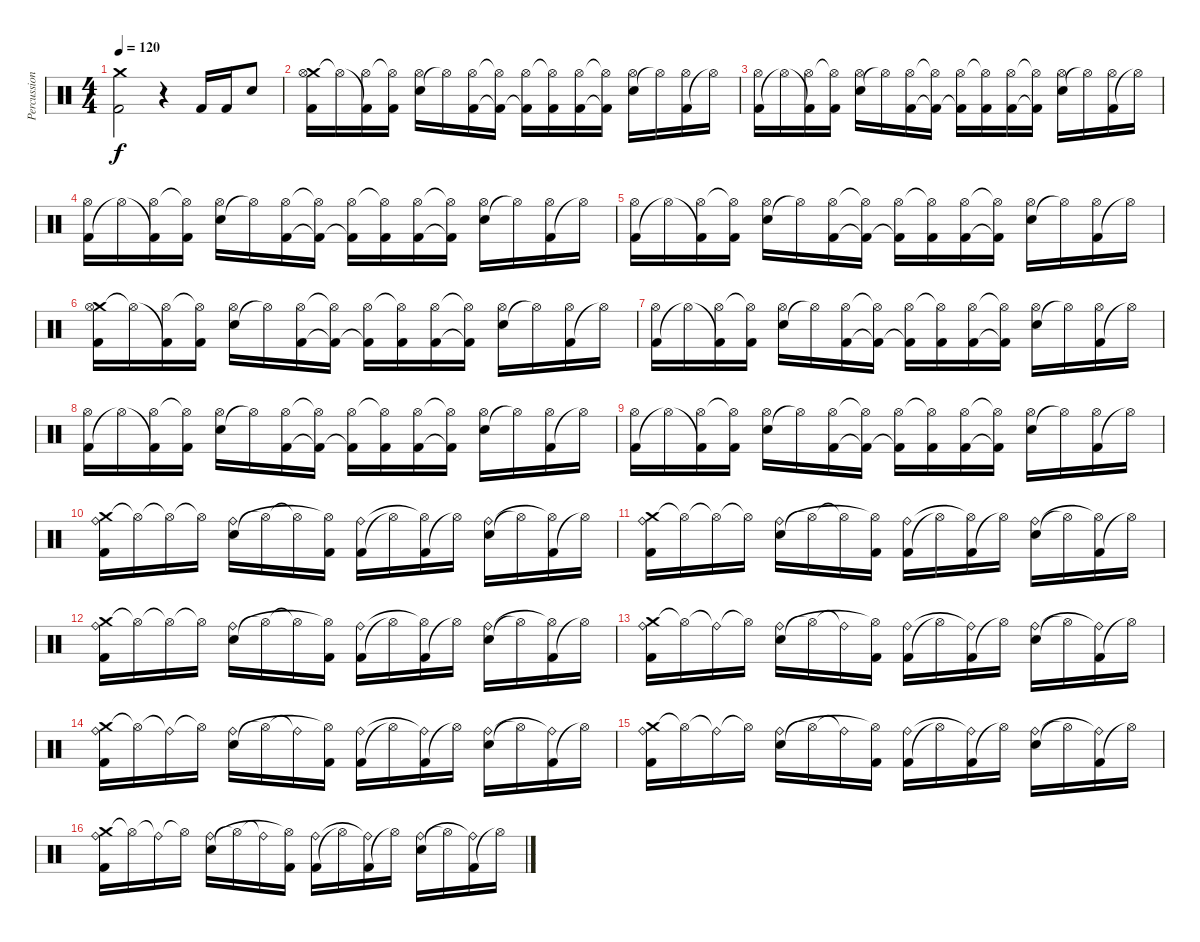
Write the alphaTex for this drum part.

\track ("Percussions" "Percussion") {instrument percussion}
\staff {score}
\articulation defaults
\ts (4 4)
\tempo 120
\clef neutral
\ks c
("Crash medium (hit)" "Kick (hit) 2").2{dy f} r.4 "Kick (hit) 2".16 "Kick (hit) 2".16 "Electric Snare (hit)".8 |
("Crash medium (hit)" "Kick (hit) 2" "Hi-Hat (open)").16 "Hi-Hat (open)"{t}.16 ("Kick (hit) 2"{t} "Hi-Hat (open)").16 ("Kick (hit) 2" "Hi-Hat (open)"{t}).16 ("Electric Snare (hit)" "Hi-Hat (open)").16 "Hi-Hat (open)"{t}.16 ("Kick (hit) 2" "Hi-Hat (open)").16 ("Kick (hit) 2"{t} "Hi-Hat (open)"{t}).16 ("Kick (hit) 2"{t} "Hi-Hat (open)").16 ("Kick (hit) 2" "Hi-Hat (open)"{t}).16 ("Kick (hit) 2" "Hi-Hat (open)").16 ("Kick (hit) 2"{t} "Hi-Hat (open)"{t}).16 ("Electric Snare (hit)" "Hi-Hat (open)").16 "Hi-Hat (open)"{t}.16 ("Kick (hit) 2" "Hi-Hat (open)").16 "Hi-Hat (open)"{t}.16 |
("Kick (hit) 2" "Hi-Hat (open)").16 "Hi-Hat (open)"{t}.16 ("Kick (hit) 2"{t} "Hi-Hat (open)").16 ("Kick (hit) 2" "Hi-Hat (open)"{t}).16 ("Electric Snare (hit)" "Hi-Hat (open)").16 "Hi-Hat (open)"{t}.16 ("Kick (hit) 2" "Hi-Hat (open)").16 ("Kick (hit) 2"{t} "Hi-Hat (open)"{t}).16 ("Kick (hit) 2"{t} "Hi-Hat (open)").16 ("Kick (hit) 2" "Hi-Hat (open)"{t}).16 ("Kick (hit) 2" "Hi-Hat (open)").16 ("Kick (hit) 2"{t} "Hi-Hat (open)"{t}).16 ("Electric Snare (hit)" "Hi-Hat (open)").16 "Hi-Hat (open)"{t}.16 ("Kick (hit) 2" "Hi-Hat (open)").16 "Hi-Hat (open)"{t}.16 |
("Kick (hit) 2" "Hi-Hat (open)").16 "Hi-Hat (open)"{t}.16 ("Kick (hit) 2"{t} "Hi-Hat (open)").16 ("Kick (hit) 2" "Hi-Hat (open)"{t}).16 ("Electric Snare (hit)" "Hi-Hat (open)").16 "Hi-Hat (open)"{t}.16 ("Kick (hit) 2" "Hi-Hat (open)").16 ("Kick (hit) 2"{t} "Hi-Hat (open)"{t}).16 ("Kick (hit) 2"{t} "Hi-Hat (open)").16 ("Kick (hit) 2" "Hi-Hat (open)"{t}).16 ("Kick (hit) 2" "Hi-Hat (open)").16 ("Kick (hit) 2"{t} "Hi-Hat (open)"{t}).16 ("Electric Snare (hit)" "Hi-Hat (open)").16 "Hi-Hat (open)"{t}.16 ("Kick (hit) 2" "Hi-Hat (open)").16 "Hi-Hat (open)"{t}.16 |
("Kick (hit) 2" "Hi-Hat (open)").16 "Hi-Hat (open)"{t}.16 ("Kick (hit) 2"{t} "Hi-Hat (open)").16 ("Kick (hit) 2" "Hi-Hat (open)"{t}).16 ("Electric Snare (hit)" "Hi-Hat (open)").16 "Hi-Hat (open)"{t}.16 ("Kick (hit) 2" "Hi-Hat (open)").16 ("Kick (hit) 2"{t} "Hi-Hat (open)"{t}).16 ("Kick (hit) 2"{t} "Hi-Hat (open)").16 ("Kick (hit) 2" "Hi-Hat (open)"{t}).16 ("Kick (hit) 2" "Hi-Hat (open)").16 ("Kick (hit) 2"{t} "Hi-Hat (open)"{t}).16 ("Electric Snare (hit)" "Hi-Hat (open)").16 "Hi-Hat (open)"{t}.16 ("Kick (hit) 2" "Hi-Hat (open)").16 "Hi-Hat (open)"{t}.16 |
("Crash medium (hit)" "Kick (hit) 2" "Hi-Hat (open)").16 "Hi-Hat (open)"{t}.16 ("Kick (hit) 2"{t} "Hi-Hat (open)").16 ("Kick (hit) 2" "Hi-Hat (open)"{t}).16 ("Electric Snare (hit)" "Hi-Hat (open)").16 "Hi-Hat (open)"{t}.16 ("Kick (hit) 2" "Hi-Hat (open)").16 ("Kick (hit) 2"{t} "Hi-Hat (open)"{t}).16 ("Kick (hit) 2"{t} "Hi-Hat (open)").16 ("Kick (hit) 2" "Hi-Hat (open)"{t}).16 ("Kick (hit) 2" "Hi-Hat (open)").16 ("Kick (hit) 2"{t} "Hi-Hat (open)"{t}).16 ("Electric Snare (hit)" "Hi-Hat (open)").16 "Hi-Hat (open)"{t}.16 ("Kick (hit) 2" "Hi-Hat (open)").16 "Hi-Hat (open)"{t}.16 |
("Kick (hit) 2" "Hi-Hat (open)").16 "Hi-Hat (open)"{t}.16 ("Kick (hit) 2"{t} "Hi-Hat (open)").16 ("Kick (hit) 2" "Hi-Hat (open)"{t}).16 ("Electric Snare (hit)" "Hi-Hat (open)").16 "Hi-Hat (open)"{t}.16 ("Kick (hit) 2" "Hi-Hat (open)").16 ("Kick (hit) 2"{t} "Hi-Hat (open)"{t}).16 ("Kick (hit) 2"{t} "Hi-Hat (open)").16 ("Kick (hit) 2" "Hi-Hat (open)"{t}).16 ("Kick (hit) 2" "Hi-Hat (open)").16 ("Kick (hit) 2"{t} "Hi-Hat (open)"{t}).16 ("Electric Snare (hit)" "Hi-Hat (open)").16 "Hi-Hat (open)"{t}.16 ("Kick (hit) 2" "Hi-Hat (open)").16 "Hi-Hat (open)"{t}.16 |
("Kick (hit) 2" "Hi-Hat (open)").16 "Hi-Hat (open)"{t}.16 ("Kick (hit) 2"{t} "Hi-Hat (open)").16 ("Kick (hit) 2" "Hi-Hat (open)"{t}).16 ("Electric Snare (hit)" "Hi-Hat (open)").16 "Hi-Hat (open)"{t}.16 ("Kick (hit) 2" "Hi-Hat (open)").16 ("Kick (hit) 2"{t} "Hi-Hat (open)"{t}).16 ("Kick (hit) 2"{t} "Hi-Hat (open)").16 ("Kick (hit) 2" "Hi-Hat (open)"{t}).16 ("Kick (hit) 2" "Hi-Hat (open)").16 ("Kick (hit) 2"{t} "Hi-Hat (open)"{t}).16 ("Electric Snare (hit)" "Hi-Hat (open)").16 "Hi-Hat (open)"{t}.16 ("Kick (hit) 2" "Hi-Hat (open)").16 "Hi-Hat (open)"{t}.16 |
("Kick (hit) 2" "Hi-Hat (open)").16 "Hi-Hat (open)"{t}.16 ("Kick (hit) 2"{t} "Hi-Hat (open)").16 ("Kick (hit) 2" "Hi-Hat (open)"{t}).16 ("Electric Snare (hit)" "Hi-Hat (open)").16 "Hi-Hat (open)"{t}.16 ("Kick (hit) 2" "Hi-Hat (open)").16 ("Kick (hit) 2"{t} "Hi-Hat (open)"{t}).16 ("Kick (hit) 2"{t} "Hi-Hat (open)").16 ("Kick (hit) 2" "Hi-Hat (open)"{t}).16 ("Kick (hit) 2" "Hi-Hat (open)").16 ("Kick (hit) 2"{t} "Hi-Hat (open)"{t}).16 ("Electric Snare (hit)" "Hi-Hat (open)").16 "Hi-Hat (open)"{t}.16 ("Kick (hit) 2" "Hi-Hat (open)").16 "Hi-Hat (open)"{t}.16 |
("Crash medium (hit)" "Kick (hit) 2" "Ride (bell)").16 "Hi-Hat (open)"{t}.16 "Hi-Hat (open)"{t}.16 "Hi-Hat (open)"{t}.16 ("Electric Snare (hit)" "Ride (bell)").16 "Hi-Hat (open)"{t}.16 "Hi-Hat (open)"{t}.16 ("Kick (hit) 2" "Hi-Hat (open)"{t}).16 ("Kick (hit) 2" "Ride (bell)").16 "Hi-Hat (open)"{t}.16 ("Kick (hit) 2" "Hi-Hat (open)"{t}).16 "Hi-Hat (open)"{t}.16 ("Electric Snare (hit)" "Ride (bell)").16 "Hi-Hat (open)"{t}.16 ("Kick (hit) 2" "Hi-Hat (open)"{t}).16 "Hi-Hat (open)"{t}.16 |
("Crash medium (hit)" "Kick (hit) 2" "Ride (bell)").16 "Hi-Hat (open)"{t}.16 "Hi-Hat (open)"{t}.16 "Hi-Hat (open)"{t}.16 ("Electric Snare (hit)" "Ride (bell)").16 "Hi-Hat (open)"{t}.16 "Hi-Hat (open)"{t}.16 ("Kick (hit) 2" "Hi-Hat (open)"{t}).16 ("Kick (hit) 2" "Ride (bell)").16 "Hi-Hat (open)"{t}.16 ("Kick (hit) 2" "Hi-Hat (open)"{t}).16 "Hi-Hat (open)"{t}.16 ("Electric Snare (hit)" "Ride (bell)").16 "Hi-Hat (open)"{t}.16 ("Kick (hit) 2" "Hi-Hat (open)"{t}).16 "Hi-Hat (open)"{t}.16 |
("Crash medium (hit)" "Kick (hit) 2" "Ride (bell)").16 "Hi-Hat (open)"{t}.16 "Hi-Hat (open)"{t}.16 "Hi-Hat (open)"{t}.16 ("Electric Snare (hit)" "Ride (bell)").16 "Hi-Hat (open)"{t}.16 "Hi-Hat (open)"{t}.16 ("Kick (hit) 2" "Hi-Hat (open)"{t}).16 ("Kick (hit) 2" "Ride (bell)").16 "Hi-Hat (open)"{t}.16 ("Kick (hit) 2" "Hi-Hat (open)"{t}).16 "Hi-Hat (open)"{t}.16 ("Electric Snare (hit)" "Ride (bell)").16 "Hi-Hat (open)"{t}.16 ("Kick (hit) 2" "Hi-Hat (open)"{t}).16 "Hi-Hat (open)"{t}.16 |
("Crash medium (hit)" "Kick (hit) 2" "Ride (bell)").16 "Hi-Hat (open)"{t}.16 "Ride (bell)"{t}.16 "Hi-Hat (open)"{t}.16 ("Electric Snare (hit)" "Ride (bell)").16 "Hi-Hat (open)"{t}.16 "Ride (bell)"{t}.16 ("Kick (hit) 2" "Hi-Hat (open)"{t}).16 ("Kick (hit) 2" "Ride (bell)").16 "Hi-Hat (open)"{t}.16 ("Kick (hit) 2" "Ride (bell)"{t}).16 "Hi-Hat (open)"{t}.16 ("Electric Snare (hit)" "Ride (bell)").16 "Hi-Hat (open)"{t}.16 ("Kick (hit) 2" "Ride (bell)"{t}).16 "Hi-Hat (open)"{t}.16 |
("Crash medium (hit)" "Kick (hit) 2" "Ride (bell)").16 "Hi-Hat (open)"{t}.16 "Ride (bell)"{t}.16 "Hi-Hat (open)"{t}.16 ("Electric Snare (hit)" "Ride (bell)").16 "Hi-Hat (open)"{t}.16 "Ride (bell)"{t}.16 ("Kick (hit) 2" "Hi-Hat (open)"{t}).16 ("Kick (hit) 2" "Ride (bell)").16 "Hi-Hat (open)"{t}.16 ("Kick (hit) 2" "Ride (bell)"{t}).16 "Hi-Hat (open)"{t}.16 ("Electric Snare (hit)" "Ride (bell)").16 "Hi-Hat (open)"{t}.16 ("Kick (hit) 2" "Ride (bell)"{t}).16 "Hi-Hat (open)"{t}.16 |
("Crash medium (hit)" "Kick (hit) 2" "Ride (bell)").16 "Hi-Hat (open)"{t}.16 "Ride (bell)"{t}.16 "Hi-Hat (open)"{t}.16 ("Electric Snare (hit)" "Ride (bell)").16 "Hi-Hat (open)"{t}.16 "Ride (bell)"{t}.16 ("Kick (hit) 2" "Hi-Hat (open)"{t}).16 ("Kick (hit) 2" "Ride (bell)").16 "Hi-Hat (open)"{t}.16 ("Kick (hit) 2" "Ride (bell)"{t}).16 "Hi-Hat (open)"{t}.16 ("Electric Snare (hit)" "Ride (bell)").16 "Hi-Hat (open)"{t}.16 ("Kick (hit) 2" "Ride (bell)"{t}).16 "Hi-Hat (open)"{t}.16 |
("Crash medium (hit)" "Kick (hit) 2" "Ride (bell)").16 "Hi-Hat (open)"{t}.16 "Ride (bell)"{t}.16 "Hi-Hat (open)"{t}.16 ("Electric Snare (hit)" "Ride (bell)").16 "Hi-Hat (open)"{t}.16 "Ride (bell)"{t}.16 ("Kick (hit) 2" "Hi-Hat (open)"{t}).16 ("Kick (hit) 2" "Ride (bell)").16 "Hi-Hat (open)"{t}.16 ("Kick (hit) 2" "Ride (bell)"{t}).16 "Hi-Hat (open)"{t}.16 ("Electric Snare (hit)" "Ride (bell)").16 "Hi-Hat (open)"{t}.16 ("Kick (hit) 2" "Ride (bell)"{t}).16 "Hi-Hat (open)"{t}.16
